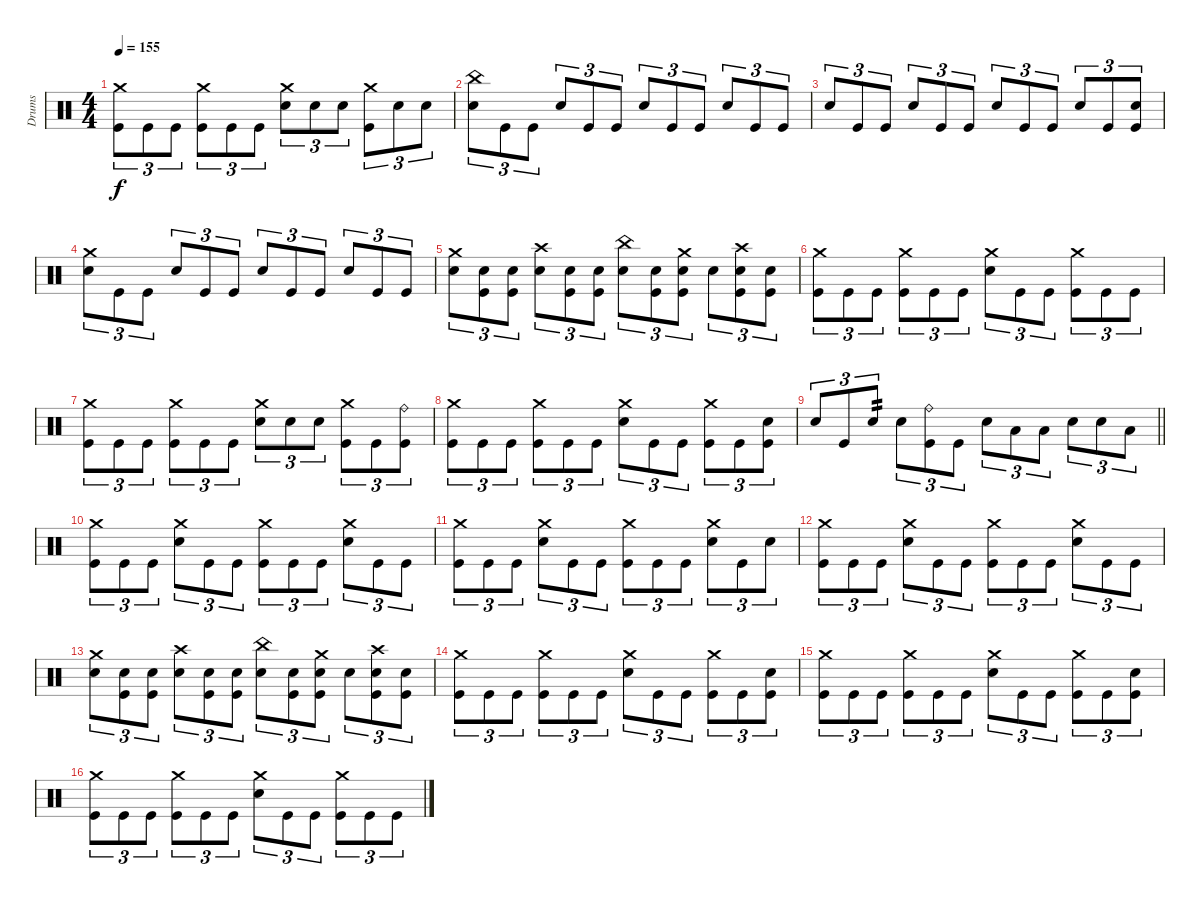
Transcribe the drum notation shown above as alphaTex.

\track ("Drums" "Drums") {instrument percussion}
\staff {score}
\articulation defaults
\ts (4 4)
\tempo 155
\clef neutral
\ks c
("Crash medium (hit)" "Kick (hit)").8{tu (3 2) dy f} "Kick (hit)".8{tu (3 2)} "Kick (hit)".8{tu (3 2)} ("Crash medium (hit)" "Kick (hit)").8{tu (3 2)} "Kick (hit)".8{tu (3 2)} "Kick (hit)".8{tu (3 2)} ("Crash medium (hit)" "Electric Snare (hit)").8{tu (3 2)} "Electric Snare (hit)".8{tu (3 2)} "Electric Snare (hit)".8{tu (3 2)} ("Crash medium (hit)" "Kick (hit)").8{tu (3 2)} "Electric Snare (hit)".8{tu (3 2)} "Electric Snare (hit)".8{tu (3 2)} |
("China (hit)" "Electric Snare (hit)").8{tu (3 2)} "Kick (hit)".8{tu (3 2)} "Kick (hit)".8{tu (3 2)} "Electric Snare (hit)".8{tu (3 2)} "Kick (hit)".8{tu (3 2)} "Kick (hit)".8{tu (3 2)} "Electric Snare (hit)".8{tu (3 2)} "Kick (hit)".8{tu (3 2)} "Kick (hit)".8{tu (3 2)} "Electric Snare (hit)".8{tu (3 2)} "Kick (hit)".8{tu (3 2)} "Kick (hit)".8{tu (3 2)} |
"Electric Snare (hit)".8{tu (3 2)} "Kick (hit)".8{tu (3 2)} "Kick (hit)".8{tu (3 2)} "Electric Snare (hit)".8{tu (3 2)} "Kick (hit)".8{tu (3 2)} "Kick (hit)".8{tu (3 2)} "Electric Snare (hit)".8{tu (3 2)} "Kick (hit)".8{tu (3 2)} "Kick (hit)".8{tu (3 2)} "Electric Snare (hit)".8{tu (3 2)} "Kick (hit)".8{tu (3 2)} ("Electric Snare (hit)" "Kick (hit)").8{tu (3 2)} |
("Crash medium (hit)" "Electric Snare (hit)").8{tu (3 2)} "Kick (hit)".8{tu (3 2)} "Kick (hit)".8{tu (3 2)} "Electric Snare (hit)".8{tu (3 2)} "Kick (hit)".8{tu (3 2)} "Kick (hit)".8{tu (3 2)} "Electric Snare (hit)".8{tu (3 2)} "Kick (hit)".8{tu (3 2)} "Kick (hit)".8{tu (3 2)} "Electric Snare (hit)".8{tu (3 2)} "Kick (hit)".8{tu (3 2)} "Kick (hit)".8{tu (3 2)} |
("Crash medium (hit)" "Electric Snare (hit)").8{tu (3 2)} ("Electric Snare (hit)" "Kick (hit)").8{tu (3 2)} ("Electric Snare (hit)" "Kick (hit)").8{tu (3 2)} ("Crash high (hit)" "Electric Snare (hit)").8{tu (3 2)} ("Electric Snare (hit)" "Kick (hit)").8{tu (3 2)} ("Electric Snare (hit)" "Kick (hit)").8{tu (3 2)} ("China (hit)" "Electric Snare (hit)").8{tu (3 2)} ("Electric Snare (hit)" "Kick (hit)").8{tu (3 2)} ("Crash medium (hit)" "Electric Snare (hit)" "Kick (hit)").8{tu (3 2)} "Electric Snare (hit)".8{tu (3 2)} ("Crash high (hit)" "Electric Snare (hit)" "Kick (hit)").8{tu (3 2)} ("Electric Snare (hit)" "Kick (hit)").8{tu (3 2)} |
("Crash medium (hit)" "Kick (hit)").8{tu (3 2)} "Kick (hit)".8{tu (3 2)} "Kick (hit)".8{tu (3 2)} ("Crash medium (hit)" "Kick (hit)").8{tu (3 2)} "Kick (hit)".8{tu (3 2)} "Kick (hit)".8{tu (3 2)} ("Crash medium (hit)" "Electric Snare (hit)").8{tu (3 2)} "Kick (hit)".8{tu (3 2)} "Kick (hit)".8{tu (3 2)} ("Crash medium (hit)" "Kick (hit)").8{tu (3 2)} "Kick (hit)".8{tu (3 2)} "Kick (hit)".8{tu (3 2)} |
("Crash medium (hit)" "Kick (hit)").8{tu (3 2)} "Kick (hit)".8{tu (3 2)} "Kick (hit)".8{tu (3 2)} ("Crash medium (hit)" "Kick (hit)").8{tu (3 2)} "Kick (hit)".8{tu (3 2)} "Kick (hit)".8{tu (3 2)} ("Crash medium (hit)" "Electric Snare (hit)").8{tu (3 2)} "Electric Snare (hit)".8{tu (3 2)} "Electric Snare (hit)".8{tu (3 2)} ("Crash medium (hit)" "Kick (hit)").8{tu (3 2)} "Kick (hit)".8{tu (3 2)} ("Ride (bell)" "Kick (hit)").8{tu (3 2)} |
("Crash medium (hit)" "Kick (hit)").8{tu (3 2)} "Kick (hit)".8{tu (3 2)} "Kick (hit)".8{tu (3 2)} ("Crash medium (hit)" "Kick (hit)").8{tu (3 2)} "Kick (hit)".8{tu (3 2)} "Kick (hit)".8{tu (3 2)} ("Crash medium (hit)" "Electric Snare (hit)").8{tu (3 2)} "Kick (hit)".8{tu (3 2)} "Kick (hit)".8{tu (3 2)} ("Crash medium (hit)" "Kick (hit)").8{tu (3 2)} "Kick (hit)".8{tu (3 2)} ("Electric Snare (hit)" "Kick (hit)").8{tu (3 2)} |
\barLineRight lightlight "Electric Snare (hit)".8{tu (3 2)} "Kick (hit)".8{tu (3 2)} "Electric Snare (hit)".8{tu (3 2) tp 2} "Electric Snare (hit)".8{tu (3 2)}
("Ride (bell)" "Kick (hit)").8{tu (3 2)} "Kick (hit)".8{tu (3 2)} "Electric Snare (hit)".8{tu (3 2)} "Low Tom (hit)".8{tu (3 2)} "Low Tom (hit)".8{tu (3 2)} "Electric Snare (hit)".8{tu (3 2)} "Electric Snare (hit)".8{tu (3 2)} "Low Tom (hit)".8{tu (3 2)} |
("Crash medium (hit)" "Kick (hit)").8{tu (3 2)} "Kick (hit)".8{tu (3 2)} "Kick (hit)".8{tu (3 2)} ("Crash medium (hit)" "Electric Snare (hit)").8{tu (3 2)} "Kick (hit)".8{tu (3 2)} "Kick (hit)".8{tu (3 2)} ("Crash medium (hit)" "Kick (hit)").8{tu (3 2)} "Kick (hit)".8{tu (3 2)} "Kick (hit)".8{tu (3 2)} ("Crash medium (hit)" "Electric Snare (hit)").8{tu (3 2)} "Kick (hit)".8{tu (3 2)} "Kick (hit)".8{tu (3 2)} |
("Crash medium (hit)" "Kick (hit)").8{tu (3 2)} "Kick (hit)".8{tu (3 2)} "Kick (hit)".8{tu (3 2)} ("Crash medium (hit)" "Electric Snare (hit)").8{tu (3 2)} "Kick (hit)".8{tu (3 2)} "Kick (hit)".8{tu (3 2)} ("Crash medium (hit)" "Kick (hit)").8{tu (3 2)} "Kick (hit)".8{tu (3 2)} "Kick (hit)".8{tu (3 2)} ("Crash medium (hit)" "Electric Snare (hit)").8{tu (3 2)} "Kick (hit)".8{tu (3 2)} "Electric Snare (hit)".8{tu (3 2)} |
("Crash medium (hit)" "Kick (hit)").8{tu (3 2)} "Kick (hit)".8{tu (3 2)} "Kick (hit)".8{tu (3 2)} ("Crash medium (hit)" "Electric Snare (hit)").8{tu (3 2)} "Kick (hit)".8{tu (3 2)} "Kick (hit)".8{tu (3 2)} ("Crash medium (hit)" "Kick (hit)").8{tu (3 2)} "Kick (hit)".8{tu (3 2)} "Kick (hit)".8{tu (3 2)} ("Crash medium (hit)" "Electric Snare (hit)").8{tu (3 2)} "Kick (hit)".8{tu (3 2)} "Kick (hit)".8{tu (3 2)} |
("Crash medium (hit)" "Electric Snare (hit)").8{tu (3 2)} ("Electric Snare (hit)" "Kick (hit)").8{tu (3 2)} ("Electric Snare (hit)" "Kick (hit)").8{tu (3 2)} ("Crash high (hit)" "Electric Snare (hit)").8{tu (3 2)} ("Electric Snare (hit)" "Kick (hit)").8{tu (3 2)} ("Electric Snare (hit)" "Kick (hit)").8{tu (3 2)} ("China (hit)" "Electric Snare (hit)").8{tu (3 2)} ("Electric Snare (hit)" "Kick (hit)").8{tu (3 2)} ("Crash medium (hit)" "Electric Snare (hit)" "Kick (hit)").8{tu (3 2)} "Electric Snare (hit)".8{tu (3 2)} ("Crash high (hit)" "Electric Snare (hit)" "Kick (hit)").8{tu (3 2)} ("Electric Snare (hit)" "Kick (hit)").8{tu (3 2)} |
("Crash medium (hit)" "Kick (hit)").8{tu (3 2)} "Kick (hit)".8{tu (3 2)} "Kick (hit)".8{tu (3 2)} ("Crash medium (hit)" "Kick (hit)").8{tu (3 2)} "Kick (hit)".8{tu (3 2)} "Kick (hit)".8{tu (3 2)} ("Crash medium (hit)" "Electric Snare (hit)").8{tu (3 2)} "Kick (hit)".8{tu (3 2)} "Kick (hit)".8{tu (3 2)} ("Crash medium (hit)" "Kick (hit)").8{tu (3 2)} "Kick (hit)".8{tu (3 2)} ("Electric Snare (hit)" "Kick (hit)").8{tu (3 2)} |
("Crash medium (hit)" "Kick (hit)").8{tu (3 2)} "Kick (hit)".8{tu (3 2)} "Kick (hit)".8{tu (3 2)} ("Crash medium (hit)" "Kick (hit)").8{tu (3 2)} "Kick (hit)".8{tu (3 2)} "Kick (hit)".8{tu (3 2)} ("Crash medium (hit)" "Electric Snare (hit)").8{tu (3 2)} "Kick (hit)".8{tu (3 2)} "Kick (hit)".8{tu (3 2)} ("Crash medium (hit)" "Kick (hit)").8{tu (3 2)} "Kick (hit)".8{tu (3 2)} ("Electric Snare (hit)" "Kick (hit)").8{tu (3 2)} |
("Crash medium (hit)" "Kick (hit)").8{tu (3 2)} "Kick (hit)".8{tu (3 2)} "Kick (hit)".8{tu (3 2)} ("Crash medium (hit)" "Kick (hit)").8{tu (3 2)} "Kick (hit)".8{tu (3 2)} "Kick (hit)".8{tu (3 2)} ("Crash medium (hit)" "Electric Snare (hit)").8{tu (3 2)} "Kick (hit)".8{tu (3 2)} "Kick (hit)".8{tu (3 2)} ("Crash medium (hit)" "Kick (hit)").8{tu (3 2)} "Kick (hit)".8{tu (3 2)} "Kick (hit)".8{tu (3 2)}
